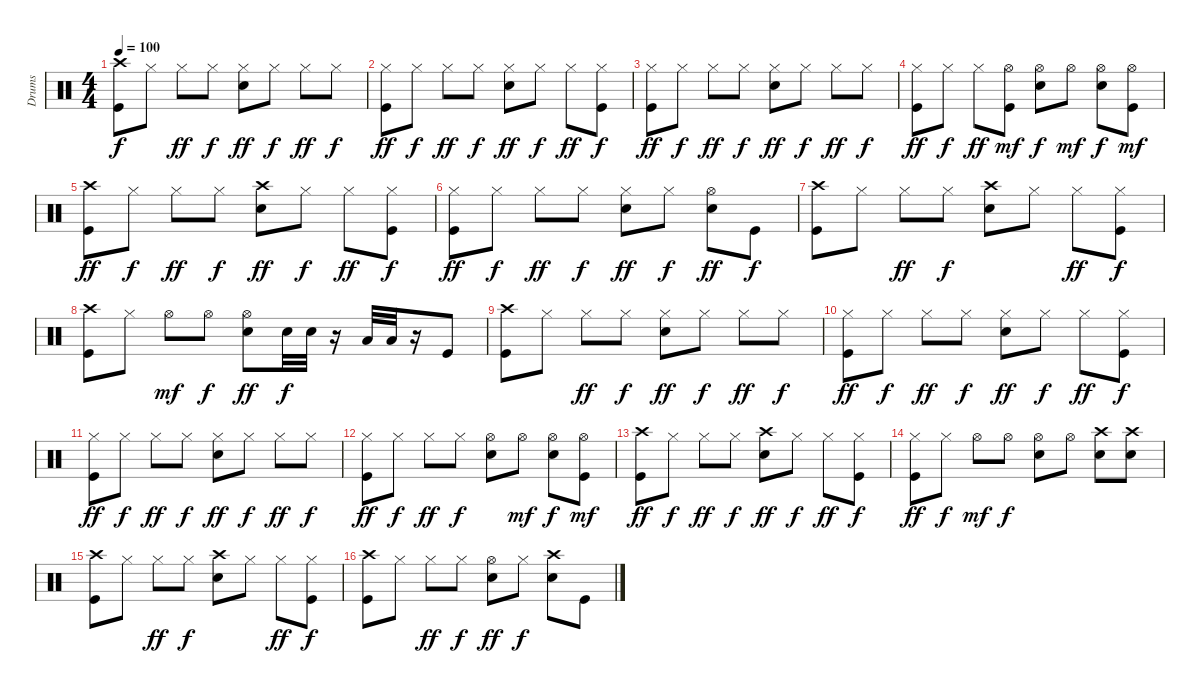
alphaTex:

\track ("Drums" "Drums") {instrument percussion}
\staff {score}
\articulation defaults
\ts (4 4)
\tempo 100
\clef neutral
\ks c
("Crash high (hit)" "Kick (hit)").8{dy f} "Hi-Hat (closed)".8 "Hi-Hat (closed)".8{dy ff} "Hi-Hat (closed)".8{dy f} ("Hi-Hat (closed)" "Snare (hit) 2").8{dy ff} "Hi-Hat (closed)".8{dy f} "Hi-Hat (closed)".8{dy ff} "Hi-Hat (closed)".8{dy f} |
("Hi-Hat (closed)" "Kick (hit)").8{dy ff} "Hi-Hat (closed)".8{dy f} "Hi-Hat (closed)".8{dy ff} "Hi-Hat (closed)".8{dy f} ("Hi-Hat (closed)" "Snare (hit) 2").8{dy ff} "Hi-Hat (closed)".8{dy f} "Hi-Hat (closed)".8{dy ff} ("Hi-Hat (closed)" "Kick (hit)").8{dy f} |
("Hi-Hat (closed)" "Kick (hit)").8{dy ff} "Hi-Hat (closed)".8{dy f} "Hi-Hat (closed)".8{dy ff} "Hi-Hat (closed)".8{dy f} ("Hi-Hat (closed)" "Snare (hit) 2").8{dy ff} "Hi-Hat (closed)".8{dy f} "Hi-Hat (closed)".8{dy ff} "Hi-Hat (closed)".8{dy f} |
("Hi-Hat (closed)" "Kick (hit)").8{dy ff} "Hi-Hat (closed)".8{dy f} "Hi-Hat (closed)".8{dy ff} ("Hi-Hat (open)" "Kick (hit)").8{dy mf} ("Hi-Hat (open)" "Snare (hit) 2").8{dy f} "Hi-Hat (open)".8{dy mf} ("Hi-Hat (open)" "Snare (hit) 2").8{dy f} ("Hi-Hat (open)" "Kick (hit)").8{dy mf} |
("Crash high (hit)" "Kick (hit)").8{dy ff} "Hi-Hat (closed)".8{dy f} "Hi-Hat (closed)".8{dy ff} "Hi-Hat (closed)".8{dy f} ("Crash high (hit)" "Snare (hit) 2").8{dy ff} "Hi-Hat (closed)".8{dy f} "Hi-Hat (closed)".8{dy ff} ("Hi-Hat (closed)" "Kick (hit)").8{dy f} |
("Hi-Hat (closed)" "Kick (hit)").8{dy ff} "Hi-Hat (closed)".8{dy f} "Hi-Hat (closed)".8{dy ff} "Hi-Hat (closed)".8{dy f} ("Hi-Hat (closed)" "Snare (hit) 2").8{dy ff} "Hi-Hat (closed)".8{dy f} ("Hi-Hat (open)" "Snare (hit) 2").8{dy ff} "Kick (hit)".8{dy f} |
("Crash high (hit)" "Kick (hit)").8 "Hi-Hat (closed)".8 "Hi-Hat (closed)".8{dy ff} "Hi-Hat (closed)".8{dy f} ("Crash high (hit)" "Snare (hit) 2").8 "Hi-Hat (closed)".8 "Hi-Hat (closed)".8{dy ff} ("Hi-Hat (closed)" "Kick (hit)").8{dy f} |
("Crash high (hit)" "Kick (hit)").8 "Hi-Hat (closed)".8 "Hi-Hat (open)".8{dy mf} "Hi-Hat (open)".8{dy f} ("Hi-Hat (open)" "Snare (hit) 2").8{dy ff} "Snare (hit) 2".32{dy f} "Snare (hit) 2".32 r.16 "Low Tom (hit)".32 "Low Tom (hit)".32 r.16 "Kick (hit)".8 |
("Crash high (hit)" "Kick (hit)").8 "Hi-Hat (closed)".8 "Hi-Hat (closed)".8{dy ff} "Hi-Hat (closed)".8{dy f} ("Hi-Hat (closed)" "Snare (hit) 2").8{dy ff} "Hi-Hat (closed)".8{dy f} "Hi-Hat (closed)".8{dy ff} "Hi-Hat (closed)".8{dy f} |
("Hi-Hat (closed)" "Kick (hit)").8{dy ff} "Hi-Hat (closed)".8{dy f} "Hi-Hat (closed)".8{dy ff} "Hi-Hat (closed)".8{dy f} ("Hi-Hat (closed)" "Snare (hit) 2").8{dy ff} "Hi-Hat (closed)".8{dy f} "Hi-Hat (closed)".8{dy ff} ("Hi-Hat (closed)" "Kick (hit)").8{dy f} |
("Hi-Hat (closed)" "Kick (hit)").8{dy ff} "Hi-Hat (closed)".8{dy f} "Hi-Hat (closed)".8{dy ff} "Hi-Hat (closed)".8{dy f} ("Hi-Hat (closed)" "Snare (hit) 2").8{dy ff} "Hi-Hat (closed)".8{dy f} "Hi-Hat (closed)".8{dy ff} "Hi-Hat (closed)".8{dy f} |
("Hi-Hat (closed)" "Kick (hit)").8{dy ff} "Hi-Hat (closed)".8{dy f} "Hi-Hat (closed)".8{dy ff} "Hi-Hat (closed)".8{dy f} ("Hi-Hat (open)" "Snare (hit) 2").8 "Hi-Hat (open)".8{dy mf} ("Hi-Hat (open)" "Snare (hit) 2").8{dy f} ("Hi-Hat (open)" "Kick (hit)").8{dy mf} |
("Crash high (hit)" "Kick (hit)").8{dy ff} "Hi-Hat (closed)".8{dy f} "Hi-Hat (closed)".8{dy ff} "Hi-Hat (closed)".8{dy f} ("Crash high (hit)" "Snare (hit) 2").8{dy ff} "Hi-Hat (closed)".8{dy f} "Hi-Hat (closed)".8{dy ff} ("Hi-Hat (closed)" "Kick (hit)").8{dy f} |
("Hi-Hat (closed)" "Kick (hit)").8{dy ff} "Hi-Hat (closed)".8{dy f} "Hi-Hat (open)".8{dy mf} "Hi-Hat (open)".8{dy f} ("Hi-Hat (open)" "Snare (hit) 2").8 "Hi-Hat (open)".8 ("Crash high (hit)" "Snare (hit) 2").8 ("Crash high (hit)" "Snare (hit) 2").8 |
("Crash high (hit)" "Kick (hit)").8 "Hi-Hat (closed)".8 "Hi-Hat (closed)".8{dy ff} "Hi-Hat (closed)".8{dy f} ("Crash high (hit)" "Snare (hit) 2").8 "Hi-Hat (closed)".8 "Hi-Hat (closed)".8{dy ff} ("Hi-Hat (closed)" "Kick (hit)").8{dy f} |
("Crash high (hit)" "Kick (hit)").8 "Hi-Hat (closed)".8 "Hi-Hat (closed)".8{dy ff} "Hi-Hat (closed)".8{dy f} ("Hi-Hat (open)" "Snare (hit) 2").8{dy ff} "Hi-Hat (closed)".8{dy f} ("Crash high (hit)" "Snare (hit) 2").8 "Kick (hit)".8
